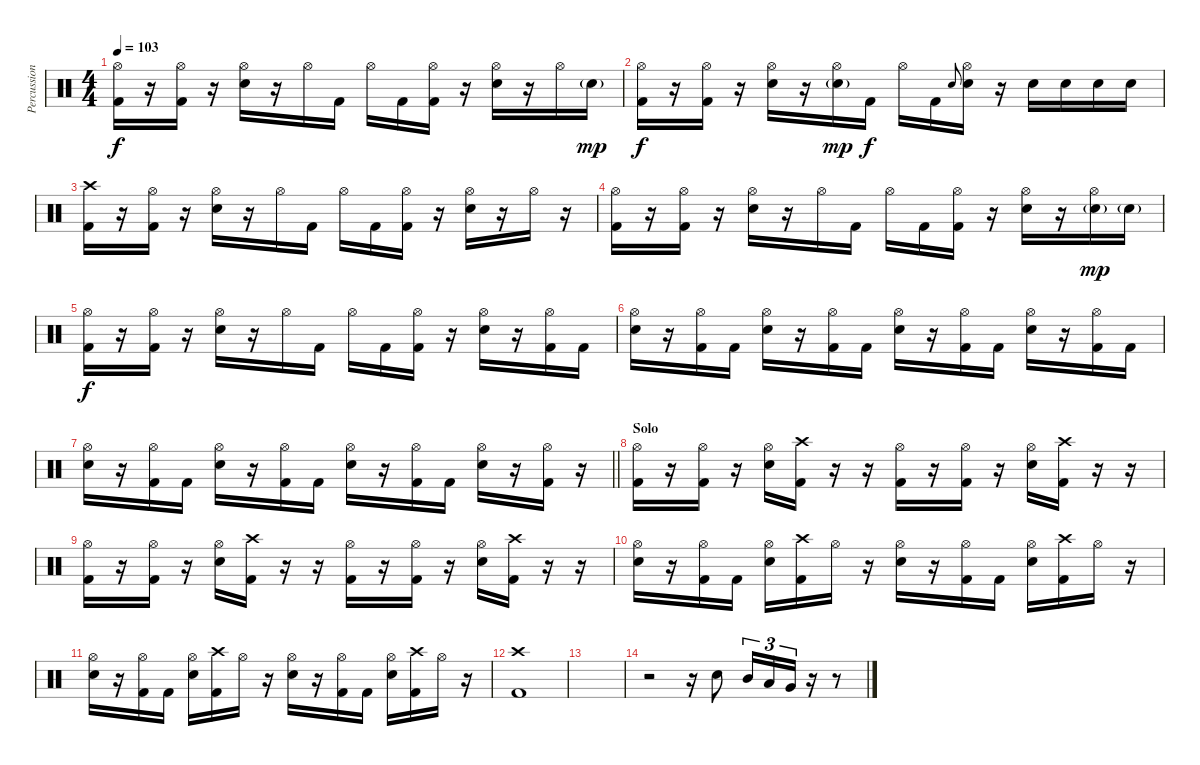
\track ("Percussion" "Percussion") {instrument percussion}
\staff {score}
\articulation defaults
\ts (4 4)
\tempo 103
\clef neutral
\ks c
("Hi-Hat (open)" "Kick (hit) 2").16{dy f} r.16 ("Hi-Hat (open)" "Kick (hit) 2").16 r.16 ("Hi-Hat (open)" "Snare (hit) 2").16 r.16 "Hi-Hat (open)".16 "Kick (hit) 2".16 "Hi-Hat (open)".16 "Kick (hit) 2".16 ("Hi-Hat (open)" "Kick (hit) 2").16 r.16 ("Hi-Hat (open)" "Snare (hit) 2").16 r.16 "Hi-Hat (open)".16 "Snare (hit) 2"{g}.16{dy mp} |
("Hi-Hat (open)" "Kick (hit) 2").16{dy f} r.16 ("Hi-Hat (open)" "Kick (hit) 2").16 r.16 ("Hi-Hat (open)" "Snare (hit) 2").16 r.16 ("Hi-Hat (open)" "Snare (hit) 2"{g}).16{dy mp} "Kick (hit) 2".16{dy f} "Hi-Hat (open)".16 "Kick (hit) 2".16 "Snare (hit) 2".8{gr onbeat} ("Hi-Hat (open)" "Snare (hit) 2").16 r.16 "Snare (hit) 2".16 "Snare (hit) 2".16 "Snare (hit) 2".16 "Snare (hit) 2".16 |
("Crash high (hit)" "Kick (hit) 2").16 r.16 ("Hi-Hat (open)" "Kick (hit) 2").16 r.16 ("Hi-Hat (open)" "Snare (hit) 2").16 r.16 "Hi-Hat (open)".16 "Kick (hit) 2".16 "Hi-Hat (open)".16 "Kick (hit) 2".16 ("Hi-Hat (open)" "Kick (hit) 2").16 r.16 ("Hi-Hat (open)" "Snare (hit) 2").16 r.16 "Hi-Hat (open)".16 r.16 |
("Hi-Hat (open)" "Kick (hit) 2").16 r.16 ("Hi-Hat (open)" "Kick (hit) 2").16 r.16 ("Hi-Hat (open)" "Snare (hit) 2").16 r.16 "Hi-Hat (open)".16 "Kick (hit) 2".16 "Hi-Hat (open)".16 "Kick (hit) 2".16 ("Hi-Hat (open)" "Kick (hit) 2").16 r.16 ("Hi-Hat (open)" "Snare (hit) 2").16 r.16 ("Hi-Hat (open)" "Snare (hit) 2"{g}).16{dy mp} "Snare (hit) 2"{g}.16 |
("Hi-Hat (open)" "Kick (hit) 2").16{dy f} r.16 ("Hi-Hat (open)" "Kick (hit) 2").16 r.16 ("Hi-Hat (open)" "Snare (hit) 2").16 r.16 "Hi-Hat (open)".16 "Kick (hit) 2".16 "Hi-Hat (open)".16 "Kick (hit) 2".16 ("Hi-Hat (open)" "Kick (hit) 2").16 r.16 ("Hi-Hat (open)" "Snare (hit) 2").16 r.16 ("Hi-Hat (open)" "Kick (hit) 2").16 "Kick (hit) 2".16 |
("Hi-Hat (open)" "Snare (hit) 2").16 r.16 ("Hi-Hat (open)" "Kick (hit) 2").16 "Kick (hit) 2".16 ("Hi-Hat (open)" "Snare (hit) 2").16 r.16 ("Hi-Hat (open)" "Kick (hit) 2").16 "Kick (hit) 2".16 ("Hi-Hat (open)" "Snare (hit) 2").16 r.16 ("Hi-Hat (open)" "Kick (hit) 2").16 "Kick (hit) 2".16 ("Hi-Hat (open)" "Snare (hit) 2").16 r.16 ("Hi-Hat (open)" "Kick (hit) 2").16 "Kick (hit) 2".16 |
\barLineRight lightlight
("Hi-Hat (open)" "Snare (hit) 2").16 r.16 ("Hi-Hat (open)" "Kick (hit) 2").16 "Kick (hit) 2".16 ("Hi-Hat (open)" "Snare (hit) 2").16 r.16 ("Hi-Hat (open)" "Kick (hit) 2").16 "Kick (hit) 2".16 ("Hi-Hat (open)" "Snare (hit) 2").16 r.16 ("Hi-Hat (open)" "Kick (hit) 2").16 "Kick (hit) 2".16 ("Hi-Hat (open)" "Snare (hit) 2").16 r.16 ("Hi-Hat (open)" "Kick (hit) 2").16 r.16 |
\section ("" "Solo")
("Hi-Hat (open)" "Kick (hit) 2").16 r.16 ("Hi-Hat (open)" "Kick (hit) 2").16 r.16 ("Hi-Hat (open)" "Snare (hit) 2").16 ("Crash high (hit)" "Kick (hit) 2").16 r.16 r.16 ("Hi-Hat (open)" "Kick (hit) 2").16 r.16 ("Hi-Hat (open)" "Kick (hit) 2").16 r.16 ("Hi-Hat (open)" "Snare (hit) 2").16 ("Crash high (hit)" "Kick (hit) 2").16 r.16 r.16 |
("Hi-Hat (open)" "Kick (hit) 2").16 r.16 ("Hi-Hat (open)" "Kick (hit) 2").16 r.16 ("Hi-Hat (open)" "Snare (hit) 2").16 ("Crash high (hit)" "Kick (hit) 2").16 r.16 r.16 ("Hi-Hat (open)" "Kick (hit) 2").16 r.16 ("Hi-Hat (open)" "Kick (hit) 2").16 r.16 ("Hi-Hat (open)" "Snare (hit) 2").16 ("Crash high (hit)" "Kick (hit) 2").16 r.16 r.16 |
("Hi-Hat (open)" "Snare (hit) 2").16 r.16 ("Hi-Hat (open)" "Kick (hit) 2").16 "Kick (hit) 2".16 ("Hi-Hat (open)" "Snare (hit) 2").16 ("Crash high (hit)" "Kick (hit) 2").16 "Hi-Hat (open)".16 r.16 ("Hi-Hat (open)" "Snare (hit) 2").16 r.16 ("Hi-Hat (open)" "Kick (hit) 2").16 "Kick (hit) 2".16 ("Hi-Hat (open)" "Snare (hit) 2").16 ("Crash high (hit)" "Kick (hit) 2").16 "Hi-Hat (open)".16 r.16 |
("Hi-Hat (open)" "Snare (hit) 2").16 r.16 ("Hi-Hat (open)" "Kick (hit) 2").16 "Kick (hit) 2".16 ("Hi-Hat (open)" "Snare (hit) 2").16 ("Crash high (hit)" "Kick (hit) 2").16 "Hi-Hat (open)".16 r.16 ("Hi-Hat (open)" "Snare (hit) 2").16 r.16 ("Hi-Hat (open)" "Kick (hit) 2").16 "Kick (hit) 2".16 ("Hi-Hat (open)" "Snare (hit) 2").16 ("Crash high (hit)" "Kick (hit) 2").16 "Hi-Hat (open)".16 r.16 |
("Crash high (hit)" "Kick (hit) 2").1 |
|
r.2 r.16 "Snare (hit) 2".8 "Mid Tom (hit)".16{tu (3 2)} "Low Tom (hit)".16{tu (3 2)} "Very Low Tom (hit)".16{tu (3 2)} r.16 r.8
